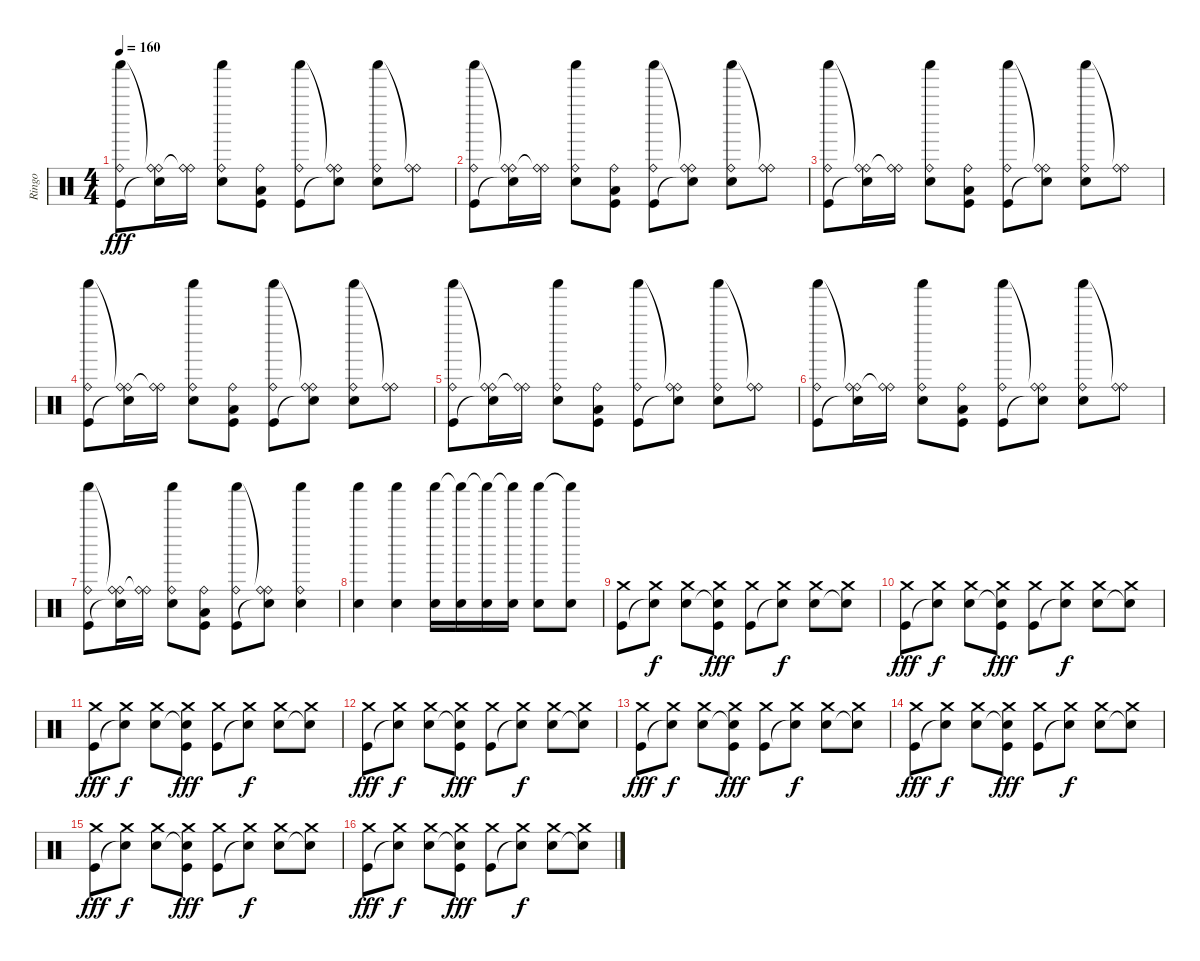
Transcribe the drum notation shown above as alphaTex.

\track ("Ringo" "Ringo") {instrument percussion}
\staff {score}
\articulation defaults
\ts (4 4)
\tempo 160
\clef neutral
\ks c
("Shaker (hit)" "Ride (bell)" "Kick (hit)").8{dy fff} ("Ride (bell)"{t} "Ride (bell)" "Snare (hit)"{t}).16 ("Ride (bell)"{t} "Ride (bell)").16 ("Shaker (hit)" "Ride (bell)" "Snare (hit) 2").8 ("Ride (bell)" "Low Floor Tom (hit)" "Kick (hit)").8 ("Shaker (hit)" "Ride (bell)" "Kick (hit)").8 ("Ride (bell)"{t} "Ride (bell)" "Snare (hit)"{t}).8 ("Shaker (hit)" "Ride (bell)" "Snare (hit) 2").8 ("Ride (bell)"{t} "Ride (bell)").8 |
("Shaker (hit)" "Ride (bell)" "Kick (hit)").8 ("Ride (bell)"{t} "Ride (bell)" "Snare (hit)"{t}).16 ("Ride (bell)"{t} "Ride (bell)").16 ("Shaker (hit)" "Ride (bell)" "Snare (hit) 2").8 ("Ride (bell)" "Low Floor Tom (hit)" "Kick (hit)").8 ("Shaker (hit)" "Ride (bell)" "Kick (hit)").8 ("Ride (bell)"{t} "Ride (bell)" "Snare (hit)"{t}).8 ("Shaker (hit)" "Ride (bell)" "Snare (hit) 2").8 ("Ride (bell)"{t} "Ride (bell)").8 |
("Shaker (hit)" "Ride (bell)" "Kick (hit)").8 ("Ride (bell)"{t} "Ride (bell)" "Snare (hit)"{t}).16 ("Ride (bell)"{t} "Ride (bell)").16 ("Shaker (hit)" "Ride (bell)" "Snare (hit) 2").8 ("Ride (bell)" "Low Floor Tom (hit)" "Kick (hit)").8 ("Shaker (hit)" "Ride (bell)" "Kick (hit)").8 ("Ride (bell)"{t} "Ride (bell)" "Snare (hit)"{t}).8 ("Shaker (hit)" "Ride (bell)" "Snare (hit) 2").8 ("Ride (bell)"{t} "Ride (bell)").8 |
("Shaker (hit)" "Ride (bell)" "Kick (hit)").8 ("Ride (bell)"{t} "Ride (bell)" "Snare (hit)"{t}).16 ("Ride (bell)"{t} "Ride (bell)").16 ("Shaker (hit)" "Ride (bell)" "Snare (hit) 2").8 ("Ride (bell)" "Low Floor Tom (hit)" "Kick (hit)").8 ("Shaker (hit)" "Ride (bell)" "Kick (hit)").8 ("Ride (bell)"{t} "Ride (bell)" "Snare (hit)"{t}).8 ("Shaker (hit)" "Ride (bell)" "Snare (hit) 2").8 ("Ride (bell)"{t} "Ride (bell)").8 |
("Shaker (hit)" "Ride (bell)" "Kick (hit)").8 ("Ride (bell)"{t} "Ride (bell)" "Snare (hit)"{t}).16 ("Ride (bell)"{t} "Ride (bell)").16 ("Shaker (hit)" "Ride (bell)" "Snare (hit) 2").8 ("Ride (bell)" "Low Floor Tom (hit)" "Kick (hit)").8 ("Shaker (hit)" "Ride (bell)" "Kick (hit)").8 ("Ride (bell)"{t} "Ride (bell)" "Snare (hit)"{t}).8 ("Shaker (hit)" "Ride (bell)" "Snare (hit) 2").8 ("Ride (bell)"{t} "Ride (bell)").8 |
("Shaker (hit)" "Ride (bell)" "Kick (hit)").8 ("Ride (bell)"{t} "Ride (bell)" "Snare (hit)"{t}).16 ("Ride (bell)"{t} "Ride (bell)").16 ("Shaker (hit)" "Ride (bell)" "Snare (hit) 2").8 ("Ride (bell)" "Low Floor Tom (hit)" "Kick (hit)").8 ("Shaker (hit)" "Ride (bell)" "Kick (hit)").8 ("Ride (bell)"{t} "Ride (bell)" "Snare (hit)"{t}).8 ("Shaker (hit)" "Ride (bell)" "Snare (hit) 2").8 ("Ride (bell)"{t} "Ride (bell)").8 |
("Shaker (hit)" "Ride (bell)" "Kick (hit)").8 ("Ride (bell)"{t} "Ride (bell)" "Snare (hit)"{t}).16 ("Ride (bell)"{t} "Ride (bell)").16 ("Shaker (hit)" "Ride (bell)" "Snare (hit) 2").8 ("Ride (bell)" "Low Floor Tom (hit)" "Kick (hit)").8 ("Shaker (hit)" "Ride (bell)" "Kick (hit)").8 ("Ride (bell)"{t} "Ride (bell)" "Snare (hit)"{t}).8 ("Shaker (hit)" "Ride (bell)" "Snare (hit) 2").4 |
("Shaker (hit)" "Snare (hit) 2").4 ("Shaker (hit)" "Snare (hit) 2").4 ("Shaker (hit)" "Snare (hit) 2").16 ("Shaker (hit)"{t} "Snare (hit) 2").16 ("Shaker (hit)"{t} "Snare (hit) 2").16 ("Shaker (hit)"{t} "Snare (hit) 2").16 ("Shaker (hit)" "Snare (hit) 2").8 ("Shaker (hit)"{t} "Snare (hit) 2").8 |
("Crash medium (hit)" "Kick (hit)").8 ("Crash medium (hit)" "Snare (hit)"{t}).8{dy f} ("Crash medium (hit)" "Snare (hit) 2").8 ("Crash medium (hit)" "Snare (hit)"{t} "Kick (hit)").8{dy fff} ("Crash medium (hit)" "Kick (hit)").8 ("Crash medium (hit)" "Snare (hit)"{t}).8{dy f} ("Crash medium (hit)" "Snare (hit) 2").8 ("Crash medium (hit)" "Snare (hit)"{t}).8 |
("Crash medium (hit)" "Kick (hit)").8{dy fff} ("Crash medium (hit)" "Snare (hit)"{t}).8{dy f} ("Crash medium (hit)" "Snare (hit) 2").8 ("Crash medium (hit)" "Snare (hit)"{t} "Kick (hit)").8{dy fff} ("Crash medium (hit)" "Kick (hit)").8 ("Crash medium (hit)" "Snare (hit)"{t}).8{dy f} ("Crash medium (hit)" "Snare (hit) 2").8 ("Crash medium (hit)" "Snare (hit)"{t}).8 |
("Crash medium (hit)" "Kick (hit)").8{dy fff} ("Crash medium (hit)" "Snare (hit)"{t}).8{dy f} ("Crash medium (hit)" "Snare (hit) 2").8 ("Crash medium (hit)" "Snare (hit)"{t} "Kick (hit)").8{dy fff} ("Crash medium (hit)" "Kick (hit)").8 ("Crash medium (hit)" "Snare (hit)"{t}).8{dy f} ("Crash medium (hit)" "Snare (hit) 2").8 ("Crash medium (hit)" "Snare (hit)"{t}).8 |
("Crash medium (hit)" "Kick (hit)").8{dy fff} ("Crash medium (hit)" "Snare (hit)"{t}).8{dy f} ("Crash medium (hit)" "Snare (hit) 2").8 ("Crash medium (hit)" "Snare (hit)"{t} "Kick (hit)").8{dy fff} ("Crash medium (hit)" "Kick (hit)").8 ("Crash medium (hit)" "Snare (hit)"{t}).8{dy f} ("Crash medium (hit)" "Snare (hit) 2").8 ("Crash medium (hit)" "Snare (hit)"{t}).8 |
("Crash medium (hit)" "Kick (hit)").8{dy fff} ("Crash medium (hit)" "Snare (hit)"{t}).8{dy f} ("Crash medium (hit)" "Snare (hit) 2").8 ("Crash medium (hit)" "Snare (hit)"{t} "Kick (hit)").8{dy fff} ("Crash medium (hit)" "Kick (hit)").8 ("Crash medium (hit)" "Snare (hit)"{t}).8{dy f} ("Crash medium (hit)" "Snare (hit) 2").8 ("Crash medium (hit)" "Snare (hit)"{t}).8 |
("Crash medium (hit)" "Kick (hit)").8{dy fff} ("Crash medium (hit)" "Snare (hit)"{t}).8{dy f} ("Crash medium (hit)" "Snare (hit) 2").8 ("Crash medium (hit)" "Snare (hit)"{t} "Kick (hit)").8{dy fff} ("Crash medium (hit)" "Kick (hit)").8 ("Crash medium (hit)" "Snare (hit)"{t}).8{dy f} ("Crash medium (hit)" "Snare (hit) 2").8 ("Crash medium (hit)" "Snare (hit)"{t}).8 |
("Crash medium (hit)" "Kick (hit)").8{dy fff} ("Crash medium (hit)" "Snare (hit)"{t}).8{dy f} ("Crash medium (hit)" "Snare (hit) 2").8 ("Crash medium (hit)" "Snare (hit)"{t} "Kick (hit)").8{dy fff} ("Crash medium (hit)" "Kick (hit)").8 ("Crash medium (hit)" "Snare (hit)"{t}).8{dy f} ("Crash medium (hit)" "Snare (hit) 2").8 ("Crash medium (hit)" "Snare (hit)"{t}).8 |
("Crash medium (hit)" "Kick (hit)").8{dy fff} ("Crash medium (hit)" "Snare (hit)"{t}).8{dy f} ("Crash medium (hit)" "Snare (hit) 2").8 ("Crash medium (hit)" "Snare (hit)"{t} "Kick (hit)").8{dy fff} ("Crash medium (hit)" "Kick (hit)").8 ("Crash medium (hit)" "Snare (hit)"{t}).8{dy f} ("Crash medium (hit)" "Snare (hit) 2").8 ("Crash medium (hit)" "Snare (hit)"{t}).8
